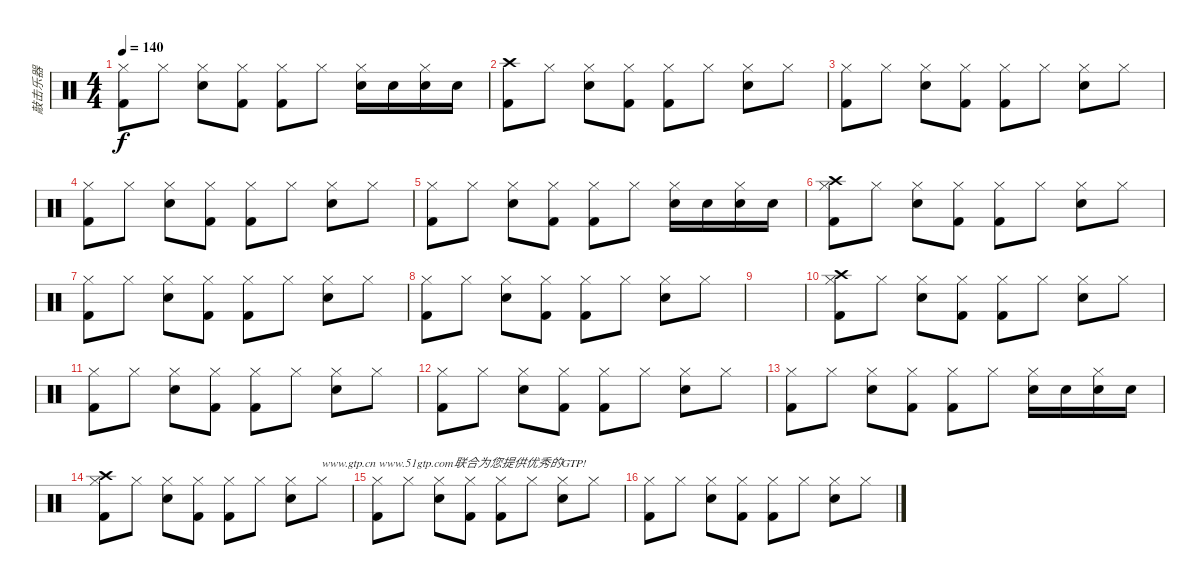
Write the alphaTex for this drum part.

\track ("敲击乐器" "敲击乐器") {instrument percussion}
\staff {score}
\articulation defaults
\ts (4 4)
\tempo 140
\clef neutral
\ks c
("Kick (hit) 2" "Hi-Hat (closed)").8{dy f} "Hi-Hat (closed)".8 ("Hi-Hat (closed)" "Electric Snare (hit)").8 ("Hi-Hat (closed)" "Kick (hit) 2").8 ("Hi-Hat (closed)" "Kick (hit) 2").8 "Hi-Hat (closed)".8 ("Hi-Hat (closed)" "Electric Snare (hit)").16 "Electric Snare (hit)".16 ("Hi-Hat (closed)" "Electric Snare (hit)").16 "Electric Snare (hit)".16 |
("Kick (hit) 2" "Crash high (hit)").8 "Hi-Hat (closed)".8 ("Hi-Hat (closed)" "Electric Snare (hit)").8 ("Hi-Hat (closed)" "Kick (hit) 2").8 ("Hi-Hat (closed)" "Kick (hit) 2").8 "Hi-Hat (closed)".8 ("Hi-Hat (closed)" "Electric Snare (hit)").8 "Hi-Hat (closed)".8 |
("Kick (hit) 2" "Hi-Hat (closed)").8 "Hi-Hat (closed)".8 ("Hi-Hat (closed)" "Electric Snare (hit)").8 ("Hi-Hat (closed)" "Kick (hit) 2").8 ("Hi-Hat (closed)" "Kick (hit) 2").8 "Hi-Hat (closed)".8 ("Hi-Hat (closed)" "Electric Snare (hit)").8 "Hi-Hat (closed)".8 |
("Kick (hit) 2" "Hi-Hat (closed)").8 "Hi-Hat (closed)".8 ("Hi-Hat (closed)" "Electric Snare (hit)").8 ("Hi-Hat (closed)" "Kick (hit) 2").8 ("Hi-Hat (closed)" "Kick (hit) 2").8 "Hi-Hat (closed)".8 ("Hi-Hat (closed)" "Electric Snare (hit)").8 "Hi-Hat (closed)".8 |
("Kick (hit) 2" "Hi-Hat (closed)").8 "Hi-Hat (closed)".8 ("Hi-Hat (closed)" "Electric Snare (hit)").8 ("Hi-Hat (closed)" "Kick (hit) 2").8 ("Hi-Hat (closed)" "Kick (hit) 2").8 "Hi-Hat (closed)".8 ("Hi-Hat (closed)" "Electric Snare (hit)").16 "Electric Snare (hit)".16 ("Hi-Hat (closed)" "Electric Snare (hit)").16 "Electric Snare (hit)".16 |
("Kick (hit) 2" "Hi-Hat (closed)" "Crash high (hit)").8 "Hi-Hat (closed)".8 ("Hi-Hat (closed)" "Electric Snare (hit)").8 ("Hi-Hat (closed)" "Kick (hit) 2").8 ("Hi-Hat (closed)" "Kick (hit) 2").8 "Hi-Hat (closed)".8 ("Hi-Hat (closed)" "Electric Snare (hit)").8 "Hi-Hat (closed)".8 |
("Kick (hit) 2" "Hi-Hat (closed)").8 "Hi-Hat (closed)".8 ("Hi-Hat (closed)" "Electric Snare (hit)").8 ("Hi-Hat (closed)" "Kick (hit) 2").8 ("Hi-Hat (closed)" "Kick (hit) 2").8 "Hi-Hat (closed)".8 ("Hi-Hat (closed)" "Electric Snare (hit)").8 "Hi-Hat (closed)".8 |
("Kick (hit) 2" "Hi-Hat (closed)").8 "Hi-Hat (closed)".8 ("Hi-Hat (closed)" "Electric Snare (hit)").8 ("Hi-Hat (closed)" "Kick (hit) 2").8 ("Hi-Hat (closed)" "Kick (hit) 2").8 "Hi-Hat (closed)".8 ("Hi-Hat (closed)" "Electric Snare (hit)").8 "Hi-Hat (closed)".8 |
|
("Kick (hit) 2" "Hi-Hat (closed)" "Crash high (hit)").8 "Hi-Hat (closed)".8 ("Hi-Hat (closed)" "Electric Snare (hit)").8 ("Hi-Hat (closed)" "Kick (hit) 2").8 ("Hi-Hat (closed)" "Kick (hit) 2").8 "Hi-Hat (closed)".8 ("Hi-Hat (closed)" "Electric Snare (hit)").8 "Hi-Hat (closed)".8 |
("Kick (hit) 2" "Hi-Hat (closed)").8 "Hi-Hat (closed)".8 ("Hi-Hat (closed)" "Electric Snare (hit)").8 ("Hi-Hat (closed)" "Kick (hit) 2").8 ("Hi-Hat (closed)" "Kick (hit) 2").8 "Hi-Hat (closed)".8 ("Hi-Hat (closed)" "Electric Snare (hit)").8 "Hi-Hat (closed)".8 |
("Kick (hit) 2" "Hi-Hat (closed)").8 "Hi-Hat (closed)".8 ("Hi-Hat (closed)" "Electric Snare (hit)").8 ("Hi-Hat (closed)" "Kick (hit) 2").8 ("Hi-Hat (closed)" "Kick (hit) 2").8 "Hi-Hat (closed)".8 ("Hi-Hat (closed)" "Electric Snare (hit)").8 "Hi-Hat (closed)".8 |
("Kick (hit) 2" "Hi-Hat (closed)").8 "Hi-Hat (closed)".8 ("Hi-Hat (closed)" "Electric Snare (hit)").8 ("Hi-Hat (closed)" "Kick (hit) 2").8 ("Hi-Hat (closed)" "Kick (hit) 2").8 "Hi-Hat (closed)".8 ("Hi-Hat (closed)" "Electric Snare (hit)").16 "Electric Snare (hit)".16 ("Hi-Hat (closed)" "Electric Snare (hit)").16 "Electric Snare (hit)".16 |
("Kick (hit) 2" "Hi-Hat (closed)" "Crash high (hit)").8 "Hi-Hat (closed)".8 ("Hi-Hat (closed)" "Electric Snare (hit)").8 ("Hi-Hat (closed)" "Kick (hit) 2").8 ("Hi-Hat (closed)" "Kick (hit) 2").8 "Hi-Hat (closed)".8 ("Hi-Hat (closed)" "Electric Snare (hit)").8 "Hi-Hat (closed)".8{txt "www.gtp.cn www.51gtp.com联合为您提供优秀的GTP!"} |
("Kick (hit) 2" "Hi-Hat (closed)").8 "Hi-Hat (closed)".8 ("Hi-Hat (closed)" "Electric Snare (hit)").8 ("Hi-Hat (closed)" "Kick (hit) 2").8 ("Hi-Hat (closed)" "Kick (hit) 2").8 "Hi-Hat (closed)".8 ("Hi-Hat (closed)" "Electric Snare (hit)").8 "Hi-Hat (closed)".8 |
("Kick (hit) 2" "Hi-Hat (closed)").8 "Hi-Hat (closed)".8 ("Hi-Hat (closed)" "Electric Snare (hit)").8 ("Hi-Hat (closed)" "Kick (hit) 2").8 ("Hi-Hat (closed)" "Kick (hit) 2").8 "Hi-Hat (closed)".8 ("Hi-Hat (closed)" "Electric Snare (hit)").8 "Hi-Hat (closed)".8
